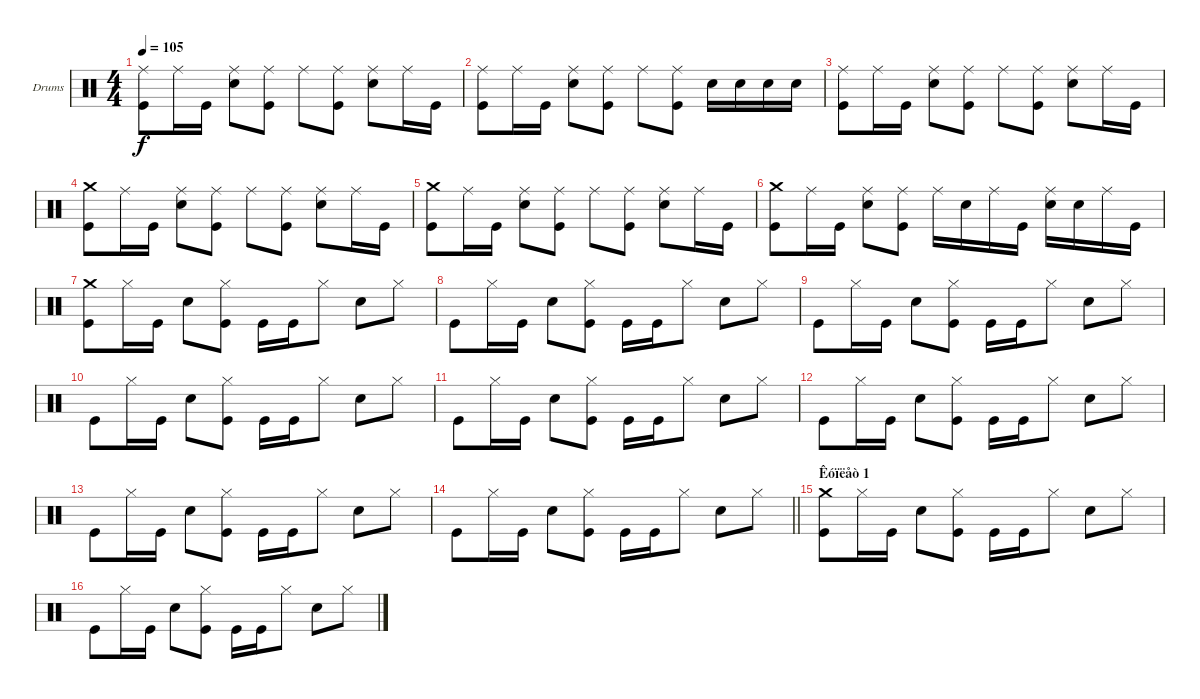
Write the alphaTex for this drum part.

\bracketExtendMode groupsimilarinstruments
\firstSystemTrackNameOrientation horizontal
\otherSystemsTrackNameOrientation horizontal
\track ("Drumkit" "Drums") {instrument percussion}
\staff {score}
\articulation defaults
\ts (4 4)
\tempo 105
\clef neutral
\ks c
("Kick (hit)" "Ride (middle)").8{dy f} "Ride (middle)".16 "Kick (hit)".16 ("Snare (hit) 2" "Ride (middle)").8 ("Kick (hit)" "Ride (middle)").8 "Ride (middle)".8 ("Kick (hit)" "Ride (middle)").8 ("Snare (hit) 2" "Ride (middle)").8 "Ride (middle)".16 "Kick (hit)".16 |
("Kick (hit)" "Ride (middle)").8 "Ride (middle)".16 "Kick (hit)".16 ("Snare (hit) 2" "Ride (middle)").8 ("Kick (hit)" "Ride (middle)").8 "Ride (middle)".8 ("Kick (hit)" "Ride (middle)").8 "Snare (hit) 2".16 "Snare (hit) 2".16 "Snare (hit) 2".16 "Snare (hit) 2".16 |
("Kick (hit)" "Ride (middle)").8 "Ride (middle)".16 "Kick (hit)".16 ("Snare (hit) 2" "Ride (middle)").8 ("Kick (hit)" "Ride (middle)").8 "Ride (middle)".8 ("Kick (hit)" "Ride (middle)").8 ("Snare (hit) 2" "Ride (middle)").8 "Ride (middle)".16 "Kick (hit)".16 |
("Kick (hit)" "Crash medium (hit)").8 "Ride (middle)".16 "Kick (hit)".16 ("Snare (hit) 2" "Ride (middle)").8 ("Kick (hit)" "Ride (middle)").8 "Ride (middle)".8 ("Kick (hit)" "Ride (middle)").8 ("Snare (hit) 2" "Ride (middle)").8 "Ride (middle)".16 "Kick (hit)".16 |
("Kick (hit)" "Crash medium (hit)").8 "Ride (middle)".16 "Kick (hit)".16 ("Snare (hit) 2" "Ride (middle)").8 ("Kick (hit)" "Ride (middle)").8 "Ride (middle)".8 ("Kick (hit)" "Ride (middle)").8 ("Snare (hit) 2" "Ride (middle)").8 "Ride (middle)".16 "Kick (hit)".16 |
("Kick (hit)" "Crash medium (hit)").8 "Ride (middle)".16 "Kick (hit)".16 ("Snare (hit) 2" "Ride (middle)").8 ("Kick (hit)" "Ride (middle)").8 "Ride (middle)".16 "Snare (hit) 2".16 "Ride (middle)".16 "Kick (hit)".16 ("Snare (hit) 2" "Ride (middle)").16 "Snare (hit) 2".16 "Ride (middle)".16 "Kick (hit)".16 |
("Kick (hit)" "Crash medium (hit)").8 "Hi-Hat (closed)".16 "Kick (hit)".16 "Snare (hit) 2".8 ("Kick (hit)" "Hi-Hat (closed)").8 "Kick (hit)".16 "Kick (hit)".16 "Hi-Hat (closed)".8 "Snare (hit) 2".8 "Hi-Hat (closed)".8 |
"Kick (hit)".8 "Hi-Hat (closed)".16 "Kick (hit)".16 "Snare (hit) 2".8 ("Kick (hit)" "Hi-Hat (closed)").8 "Kick (hit)".16 "Kick (hit)".16 "Hi-Hat (closed)".8 "Snare (hit) 2".8 "Hi-Hat (closed)".8 |
"Kick (hit)".8 "Hi-Hat (closed)".16 "Kick (hit)".16 "Snare (hit) 2".8 ("Kick (hit)" "Hi-Hat (closed)").8 "Kick (hit)".16 "Kick (hit)".16 "Hi-Hat (closed)".8 "Snare (hit) 2".8 "Hi-Hat (closed)".8 |
"Kick (hit)".8 "Hi-Hat (closed)".16 "Kick (hit)".16 "Snare (hit) 2".8 ("Kick (hit)" "Hi-Hat (closed)").8 "Kick (hit)".16 "Kick (hit)".16 "Hi-Hat (closed)".8 "Snare (hit) 2".8 "Hi-Hat (closed)".8 |
"Kick (hit)".8 "Hi-Hat (closed)".16 "Kick (hit)".16 "Snare (hit) 2".8 ("Kick (hit)" "Hi-Hat (closed)").8 "Kick (hit)".16 "Kick (hit)".16 "Hi-Hat (closed)".8 "Snare (hit) 2".8 "Hi-Hat (closed)".8 |
"Kick (hit)".8 "Hi-Hat (closed)".16 "Kick (hit)".16 "Snare (hit) 2".8 ("Kick (hit)" "Hi-Hat (closed)").8 "Kick (hit)".16 "Kick (hit)".16 "Hi-Hat (closed)".8 "Snare (hit) 2".8 "Hi-Hat (closed)".8 |
"Kick (hit)".8 "Hi-Hat (closed)".16 "Kick (hit)".16 "Snare (hit) 2".8 ("Kick (hit)" "Hi-Hat (closed)").8 "Kick (hit)".16 "Kick (hit)".16 "Hi-Hat (closed)".8 "Snare (hit) 2".8 "Hi-Hat (closed)".8 |
\barLineRight lightlight "Kick (hit)".8 "Hi-Hat (closed)".16 "Kick (hit)".16 "Snare (hit) 2".8
("Kick (hit)" "Hi-Hat (closed)").8 "Kick (hit)".16 "Kick (hit)".16 "Hi-Hat (closed)".8 "Snare (hit) 2".8 "Hi-Hat (closed)".8 |
\section ("" "Êóïëåò 1")
("Kick (hit)" "Crash medium (hit)").8 "Hi-Hat (closed)".16 "Kick (hit)".16 "Snare (hit) 2".8 ("Kick (hit)" "Hi-Hat (closed)").8 "Kick (hit)".16 "Kick (hit)".16 "Hi-Hat (closed)".8 "Snare (hit) 2".8 "Hi-Hat (closed)".8 |
"Kick (hit)".8 "Hi-Hat (closed)".16 "Kick (hit)".16 "Snare (hit) 2".8 ("Kick (hit)" "Hi-Hat (closed)").8 "Kick (hit)".16 "Kick (hit)".16 "Hi-Hat (closed)".8 "Snare (hit) 2".8 "Hi-Hat (closed)".8
